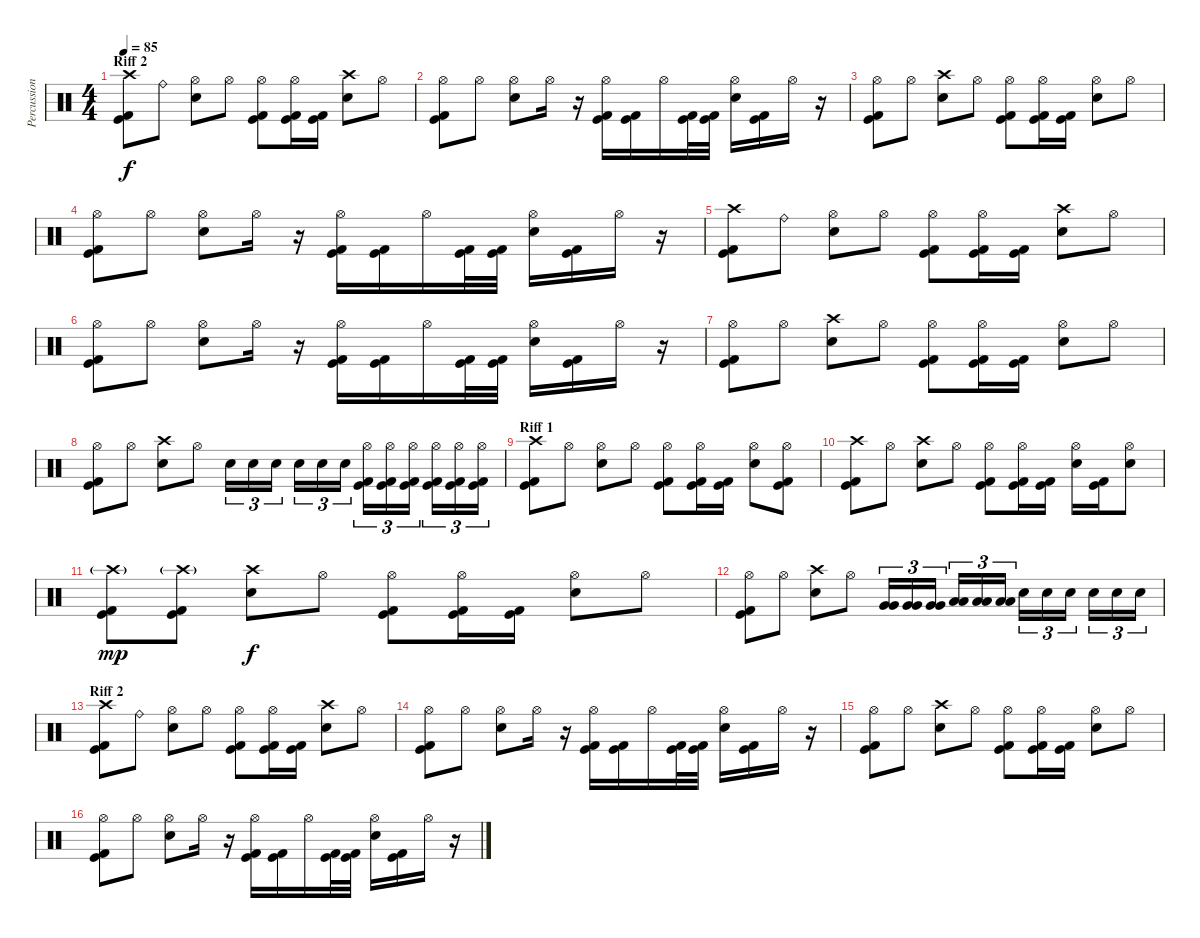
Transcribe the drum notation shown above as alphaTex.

\track ("Percussion" "Percussion") {instrument percussion}
\staff {score}
\articulation defaults
\ts (4 4)
\section ("" "Riff 2")
\tempo 85
\clef neutral
\ks c
("Crash high (hit)" "Kick (hit) 2" "Kick (hit)").8{dy f} "Ride (bell)".8 ("Hi-Hat (open)" "Electric Snare (hit)").8 "Hi-Hat (open)".8 ("Hi-Hat (open)" "Kick (hit) 2" "Kick (hit)").8 ("Hi-Hat (open)" "Kick (hit) 2" "Kick (hit)").16 ("Kick (hit) 2" "Kick (hit)").16 ("Crash high (hit)" "Electric Snare (hit)").8 "Hi-Hat (open)".8 |
("Hi-Hat (open)" "Kick (hit) 2" "Kick (hit)").8 "Hi-Hat (open)".8 ("Hi-Hat (open)" "Electric Snare (hit)").8 "Hi-Hat (open)".16 r.16 ("Hi-Hat (open)" "Kick (hit) 2" "Kick (hit)").16 ("Kick (hit) 2" "Kick (hit)").16 "Hi-Hat (open)".16 ("Kick (hit) 2" "Kick (hit)").32 ("Kick (hit) 2" "Kick (hit)").32 ("Hi-Hat (open)" "Electric Snare (hit)").16 ("Kick (hit) 2" "Kick (hit)").16 "Hi-Hat (open)".16 r.16 |
("Hi-Hat (open)" "Kick (hit) 2" "Kick (hit)").8 "Hi-Hat (open)".8 ("Crash high (hit)" "Electric Snare (hit)").8 "Hi-Hat (open)".8 ("Hi-Hat (open)" "Kick (hit) 2" "Kick (hit)").8 ("Hi-Hat (open)" "Kick (hit) 2" "Kick (hit)").16 ("Kick (hit) 2" "Kick (hit)").16 ("Hi-Hat (open)" "Electric Snare (hit)").8 "Hi-Hat (open)".8 |
("Hi-Hat (open)" "Kick (hit) 2" "Kick (hit)").8 "Hi-Hat (open)".8 ("Hi-Hat (open)" "Electric Snare (hit)").8 "Hi-Hat (open)".16 r.16 ("Hi-Hat (open)" "Kick (hit) 2" "Kick (hit)").16 ("Kick (hit) 2" "Kick (hit)").16 "Hi-Hat (open)".16 ("Kick (hit) 2" "Kick (hit)").32 ("Kick (hit) 2" "Kick (hit)").32 ("Hi-Hat (open)" "Electric Snare (hit)").16 ("Kick (hit) 2" "Kick (hit)").16 "Hi-Hat (open)".16 r.16 |
("Crash high (hit)" "Kick (hit) 2" "Kick (hit)").8 "Ride (bell)".8 ("Hi-Hat (open)" "Electric Snare (hit)").8 "Hi-Hat (open)".8 ("Hi-Hat (open)" "Kick (hit) 2" "Kick (hit)").8 ("Hi-Hat (open)" "Kick (hit) 2" "Kick (hit)").16 ("Kick (hit) 2" "Kick (hit)").16 ("Crash high (hit)" "Electric Snare (hit)").8 "Hi-Hat (open)".8 |
("Hi-Hat (open)" "Kick (hit) 2" "Kick (hit)").8 "Hi-Hat (open)".8 ("Hi-Hat (open)" "Electric Snare (hit)").8 "Hi-Hat (open)".16 r.16 ("Hi-Hat (open)" "Kick (hit) 2" "Kick (hit)").16 ("Kick (hit) 2" "Kick (hit)").16 "Hi-Hat (open)".16 ("Kick (hit) 2" "Kick (hit)").32 ("Kick (hit) 2" "Kick (hit)").32 ("Hi-Hat (open)" "Electric Snare (hit)").16 ("Kick (hit) 2" "Kick (hit)").16 "Hi-Hat (open)".16 r.16 |
("Hi-Hat (open)" "Kick (hit) 2" "Kick (hit)").8 "Hi-Hat (open)".8 ("Crash high (hit)" "Electric Snare (hit)").8 "Hi-Hat (open)".8 ("Hi-Hat (open)" "Kick (hit) 2" "Kick (hit)").8 ("Hi-Hat (open)" "Kick (hit) 2" "Kick (hit)").16 ("Kick (hit) 2" "Kick (hit)").16 ("Hi-Hat (open)" "Electric Snare (hit)").8 "Hi-Hat (open)".8 |
("Hi-Hat (open)" "Kick (hit) 2" "Kick (hit)").8 "Hi-Hat (open)".8 ("Crash high (hit)" "Electric Snare (hit)").8 "Hi-Hat (open)".8 "Electric Snare (hit)".16{tu (3 2)} "Electric Snare (hit)".16{tu (3 2)} "Electric Snare (hit)".16{tu (3 2)} "Electric Snare (hit)".16{tu (3 2)} "Electric Snare (hit)".16{tu (3 2)} "Electric Snare (hit)".16{tu (3 2)} ("Kick (hit) 2" "Kick (hit)" "Hi-Hat (open)").16{tu (3 2)} ("Kick (hit) 2" "Kick (hit)" "Hi-Hat (open)").16{tu (3 2)} ("Kick (hit) 2" "Kick (hit)" "Hi-Hat (open)").16{tu (3 2)} ("Kick (hit) 2" "Kick (hit)" "Hi-Hat (open)").16{tu (3 2)} ("Kick (hit) 2" "Kick (hit)" "Hi-Hat (open)").16{tu (3 2)} ("Kick (hit) 2" "Kick (hit)" "Hi-Hat (open)").16{tu (3 2)} |
\section ("" "Riff 1")
("Crash high (hit)" "Kick (hit) 2" "Kick (hit)").8 "Hi-Hat (open)".8 ("Hi-Hat (open)" "Electric Snare (hit)").8 "Hi-Hat (open)".8 ("Hi-Hat (open)" "Kick (hit) 2" "Kick (hit)").8 ("Hi-Hat (open)" "Kick (hit) 2" "Kick (hit)").16 ("Kick (hit) 2" "Kick (hit)").16 ("Hi-Hat (open)" "Electric Snare (hit)").8 ("Hi-Hat (open)" "Kick (hit) 2" "Kick (hit)").8 |
("Crash high (hit)" "Kick (hit) 2" "Kick (hit)").8 "Hi-Hat (open)".8 ("Crash high (hit)" "Electric Snare (hit)").8 "Hi-Hat (open)".8 ("Hi-Hat (open)" "Kick (hit) 2" "Kick (hit)").8 ("Hi-Hat (open)" "Kick (hit) 2" "Kick (hit)").16 ("Kick (hit) 2" "Kick (hit)").16 ("Hi-Hat (open)" "Electric Snare (hit)").16 ("Kick (hit) 2" "Kick (hit)").16 ("Hi-Hat (open)" "Electric Snare (hit)").8 |
("Crash high (hit)"{g} "Kick (hit) 2" "Kick (hit)").8{dy mp} ("Crash high (hit)"{g} "Kick (hit) 2" "Kick (hit)").8 ("Crash high (hit)" "Electric Snare (hit)").8{dy f} "Hi-Hat (open)".8 ("Hi-Hat (open)" "Kick (hit) 2" "Kick (hit)").8 ("Hi-Hat (open)" "Kick (hit) 2" "Kick (hit)").16 ("Kick (hit) 2" "Kick (hit)").16 ("Hi-Hat (open)" "Electric Snare (hit)").8 "Hi-Hat (open)".8 |
("Hi-Hat (open)" "Kick (hit) 2" "Kick (hit)").8 "Hi-Hat (open)".8 ("Crash high (hit)" "Electric Snare (hit)").8 "Hi-Hat (open)".8 ("Very Low Tom (hit)" "Very Low Tom (hit)").16{tu (3 2)} ("Very Low Tom (hit)" "Very Low Tom (hit)").16{tu (3 2)} ("Very Low Tom (hit)" "Very Low Tom (hit)").16{tu (3 2)} ("Low Floor Tom (hit)" "Low Floor Tom (hit)").16{tu (3 2)} ("Low Floor Tom (hit)" "Low Floor Tom (hit)").16{tu (3 2)} ("Low Floor Tom (hit)" "Low Floor Tom (hit)").16{tu (3 2)} "Electric Snare (hit)".16{tu (3 2)} "Electric Snare (hit)".16{tu (3 2)} "Electric Snare (hit)".16{tu (3 2)} "Electric Snare (hit)".16{tu (3 2)} "Electric Snare (hit)".16{tu (3 2)} "Electric Snare (hit)".16{tu (3 2)} |
\section ("" "Riff 2")
("Crash high (hit)" "Kick (hit) 2" "Kick (hit)").8 "Ride (bell)".8 ("Hi-Hat (open)" "Electric Snare (hit)").8 "Hi-Hat (open)".8 ("Hi-Hat (open)" "Kick (hit) 2" "Kick (hit)").8 ("Hi-Hat (open)" "Kick (hit) 2" "Kick (hit)").16 ("Kick (hit) 2" "Kick (hit)").16 ("Crash high (hit)" "Electric Snare (hit)").8 "Hi-Hat (open)".8 |
("Hi-Hat (open)" "Kick (hit) 2" "Kick (hit)").8 "Hi-Hat (open)".8 ("Hi-Hat (open)" "Electric Snare (hit)").8 "Hi-Hat (open)".16 r.16 ("Hi-Hat (open)" "Kick (hit) 2" "Kick (hit)").16 ("Kick (hit) 2" "Kick (hit)").16 "Hi-Hat (open)".16 ("Kick (hit) 2" "Kick (hit)").32 ("Kick (hit) 2" "Kick (hit)").32 ("Hi-Hat (open)" "Electric Snare (hit)").16 ("Kick (hit) 2" "Kick (hit)").16 "Hi-Hat (open)".16 r.16 |
("Hi-Hat (open)" "Kick (hit) 2" "Kick (hit)").8 "Hi-Hat (open)".8 ("Crash high (hit)" "Electric Snare (hit)").8 "Hi-Hat (open)".8 ("Hi-Hat (open)" "Kick (hit) 2" "Kick (hit)").8 ("Hi-Hat (open)" "Kick (hit) 2" "Kick (hit)").16 ("Kick (hit) 2" "Kick (hit)").16 ("Hi-Hat (open)" "Electric Snare (hit)").8 "Hi-Hat (open)".8 |
("Hi-Hat (open)" "Kick (hit) 2" "Kick (hit)").8 "Hi-Hat (open)".8 ("Hi-Hat (open)" "Electric Snare (hit)").8 "Hi-Hat (open)".16 r.16 ("Hi-Hat (open)" "Kick (hit) 2" "Kick (hit)").16 ("Kick (hit) 2" "Kick (hit)").16 "Hi-Hat (open)".16 ("Kick (hit) 2" "Kick (hit)").32 ("Kick (hit) 2" "Kick (hit)").32 ("Hi-Hat (open)" "Electric Snare (hit)").16 ("Kick (hit) 2" "Kick (hit)").16 "Hi-Hat (open)".16 r.16
